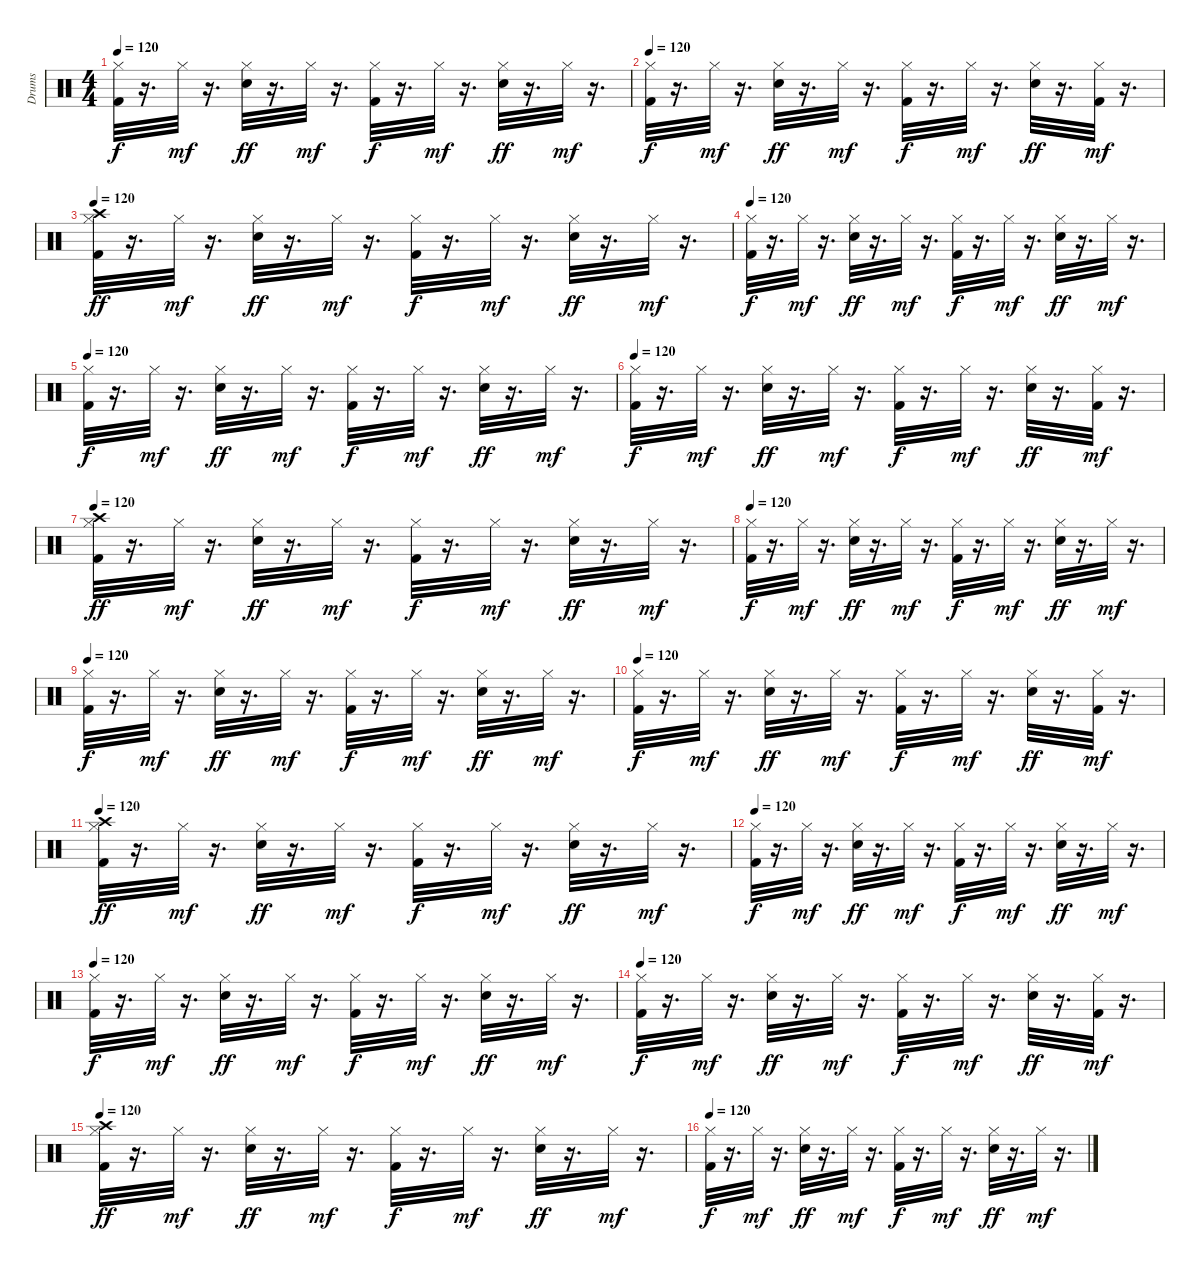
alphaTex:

\track ("Drums" "Drums") {instrument percussion}
\staff {score}
\articulation defaults
\ts (4 4)
\tempo 120
\clef neutral
\ks c
("Kick (hit) 2" "Hi-Hat (closed)").32{dy f} r.16{d} "Hi-Hat (closed)".32{dy mf} r.16{d} ("Snare (hit) 2" "Hi-Hat (closed)").32{dy ff} r.16{d} "Hi-Hat (closed)".32{dy mf} r.16{d} ("Kick (hit) 2" "Hi-Hat (closed)").32{dy f} r.16{d} "Hi-Hat (closed)".32{dy mf} r.16{d} ("Snare (hit) 2" "Hi-Hat (closed)").32{dy ff} r.16{d} "Hi-Hat (closed)".32{dy mf} r.16{d} |
\tempo 120
("Kick (hit) 2" "Hi-Hat (closed)").32{dy f} r.16{d} "Hi-Hat (closed)".32{dy mf} r.16{d} ("Snare (hit) 2" "Hi-Hat (closed)").32{dy ff} r.16{d} "Hi-Hat (closed)".32{dy mf} r.16{d} ("Kick (hit) 2" "Hi-Hat (closed)").32{dy f} r.16{d} "Hi-Hat (closed)".32{dy mf} r.16{d} ("Snare (hit) 2" "Hi-Hat (closed)").32{dy ff} r.16{d} ("Kick (hit) 2" "Hi-Hat (closed)").32{dy mf} r.16{d} |
\tempo 120
("Kick (hit) 2" "Hi-Hat (closed)" "Crash high (hit)").32{dy ff} r.16{d} "Hi-Hat (closed)".32{dy mf} r.16{d} ("Snare (hit) 2" "Hi-Hat (closed)").32{dy ff} r.16{d} "Hi-Hat (closed)".32{dy mf} r.16{d} ("Kick (hit) 2" "Hi-Hat (closed)").32{dy f} r.16{d} "Hi-Hat (closed)".32{dy mf} r.16{d} ("Snare (hit) 2" "Hi-Hat (closed)").32{dy ff} r.16{d} "Hi-Hat (closed)".32{dy mf} r.16{d} |
\tempo 120
("Kick (hit) 2" "Hi-Hat (closed)").32{dy f} r.16{d} "Hi-Hat (closed)".32{dy mf} r.16{d} ("Snare (hit) 2" "Hi-Hat (closed)").32{dy ff} r.16{d} "Hi-Hat (closed)".32{dy mf} r.16{d} ("Kick (hit) 2" "Hi-Hat (closed)").32{dy f} r.16{d} "Hi-Hat (closed)".32{dy mf} r.16{d} ("Snare (hit) 2" "Hi-Hat (closed)").32{dy ff} r.16{d} "Hi-Hat (closed)".32{dy mf} r.16{d} |
\tempo 120
("Kick (hit) 2" "Hi-Hat (closed)").32{dy f} r.16{d} "Hi-Hat (closed)".32{dy mf} r.16{d} ("Snare (hit) 2" "Hi-Hat (closed)").32{dy ff} r.16{d} "Hi-Hat (closed)".32{dy mf} r.16{d} ("Kick (hit) 2" "Hi-Hat (closed)").32{dy f} r.16{d} "Hi-Hat (closed)".32{dy mf} r.16{d} ("Snare (hit) 2" "Hi-Hat (closed)").32{dy ff} r.16{d} "Hi-Hat (closed)".32{dy mf} r.16{d} |
\tempo 120
("Kick (hit) 2" "Hi-Hat (closed)").32{dy f} r.16{d} "Hi-Hat (closed)".32{dy mf} r.16{d} ("Snare (hit) 2" "Hi-Hat (closed)").32{dy ff} r.16{d} "Hi-Hat (closed)".32{dy mf} r.16{d} ("Kick (hit) 2" "Hi-Hat (closed)").32{dy f} r.16{d} "Hi-Hat (closed)".32{dy mf} r.16{d} ("Snare (hit) 2" "Hi-Hat (closed)").32{dy ff} r.16{d} ("Kick (hit) 2" "Hi-Hat (closed)").32{dy mf} r.16{d} |
\tempo 120
("Kick (hit) 2" "Hi-Hat (closed)" "Crash high (hit)").32{dy ff} r.16{d} "Hi-Hat (closed)".32{dy mf} r.16{d} ("Snare (hit) 2" "Hi-Hat (closed)").32{dy ff} r.16{d} "Hi-Hat (closed)".32{dy mf} r.16{d} ("Kick (hit) 2" "Hi-Hat (closed)").32{dy f} r.16{d} "Hi-Hat (closed)".32{dy mf} r.16{d} ("Snare (hit) 2" "Hi-Hat (closed)").32{dy ff} r.16{d} "Hi-Hat (closed)".32{dy mf} r.16{d} |
\tempo 120
("Kick (hit) 2" "Hi-Hat (closed)").32{dy f} r.16{d} "Hi-Hat (closed)".32{dy mf} r.16{d} ("Snare (hit) 2" "Hi-Hat (closed)").32{dy ff} r.16{d} "Hi-Hat (closed)".32{dy mf} r.16{d} ("Kick (hit) 2" "Hi-Hat (closed)").32{dy f} r.16{d} "Hi-Hat (closed)".32{dy mf} r.16{d} ("Snare (hit) 2" "Hi-Hat (closed)").32{dy ff} r.16{d} "Hi-Hat (closed)".32{dy mf} r.16{d} |
\tempo 120
("Kick (hit) 2" "Hi-Hat (closed)").32{dy f} r.16{d} "Hi-Hat (closed)".32{dy mf} r.16{d} ("Snare (hit) 2" "Hi-Hat (closed)").32{dy ff} r.16{d} "Hi-Hat (closed)".32{dy mf} r.16{d} ("Kick (hit) 2" "Hi-Hat (closed)").32{dy f} r.16{d} "Hi-Hat (closed)".32{dy mf} r.16{d} ("Snare (hit) 2" "Hi-Hat (closed)").32{dy ff} r.16{d} "Hi-Hat (closed)".32{dy mf} r.16{d} |
\tempo 120
("Kick (hit) 2" "Hi-Hat (closed)").32{dy f} r.16{d} "Hi-Hat (closed)".32{dy mf} r.16{d} ("Snare (hit) 2" "Hi-Hat (closed)").32{dy ff} r.16{d} "Hi-Hat (closed)".32{dy mf} r.16{d} ("Kick (hit) 2" "Hi-Hat (closed)").32{dy f} r.16{d} "Hi-Hat (closed)".32{dy mf} r.16{d} ("Snare (hit) 2" "Hi-Hat (closed)").32{dy ff} r.16{d} ("Kick (hit) 2" "Hi-Hat (closed)").32{dy mf} r.16{d} |
\tempo 120
("Kick (hit) 2" "Hi-Hat (closed)" "Crash high (hit)").32{dy ff} r.16{d} "Hi-Hat (closed)".32{dy mf} r.16{d} ("Snare (hit) 2" "Hi-Hat (closed)").32{dy ff} r.16{d} "Hi-Hat (closed)".32{dy mf} r.16{d} ("Kick (hit) 2" "Hi-Hat (closed)").32{dy f} r.16{d} "Hi-Hat (closed)".32{dy mf} r.16{d} ("Snare (hit) 2" "Hi-Hat (closed)").32{dy ff} r.16{d} "Hi-Hat (closed)".32{dy mf} r.16{d} |
\tempo 120
("Kick (hit) 2" "Hi-Hat (closed)").32{dy f} r.16{d} "Hi-Hat (closed)".32{dy mf} r.16{d} ("Snare (hit) 2" "Hi-Hat (closed)").32{dy ff} r.16{d} "Hi-Hat (closed)".32{dy mf} r.16{d} ("Kick (hit) 2" "Hi-Hat (closed)").32{dy f} r.16{d} "Hi-Hat (closed)".32{dy mf} r.16{d} ("Snare (hit) 2" "Hi-Hat (closed)").32{dy ff} r.16{d} "Hi-Hat (closed)".32{dy mf} r.16{d} |
\tempo 120
("Kick (hit) 2" "Hi-Hat (closed)").32{dy f} r.16{d} "Hi-Hat (closed)".32{dy mf} r.16{d} ("Snare (hit) 2" "Hi-Hat (closed)").32{dy ff} r.16{d} "Hi-Hat (closed)".32{dy mf} r.16{d} ("Kick (hit) 2" "Hi-Hat (closed)").32{dy f} r.16{d} "Hi-Hat (closed)".32{dy mf} r.16{d} ("Snare (hit) 2" "Hi-Hat (closed)").32{dy ff} r.16{d} "Hi-Hat (closed)".32{dy mf} r.16{d} |
\tempo 120
("Kick (hit) 2" "Hi-Hat (closed)").32{dy f} r.16{d} "Hi-Hat (closed)".32{dy mf} r.16{d} ("Snare (hit) 2" "Hi-Hat (closed)").32{dy ff} r.16{d} "Hi-Hat (closed)".32{dy mf} r.16{d} ("Kick (hit) 2" "Hi-Hat (closed)").32{dy f} r.16{d} "Hi-Hat (closed)".32{dy mf} r.16{d} ("Snare (hit) 2" "Hi-Hat (closed)").32{dy ff} r.16{d} ("Kick (hit) 2" "Hi-Hat (closed)").32{dy mf} r.16{d} |
\tempo 120
("Kick (hit) 2" "Hi-Hat (closed)" "Crash high (hit)").32{dy ff} r.16{d} "Hi-Hat (closed)".32{dy mf} r.16{d} ("Snare (hit) 2" "Hi-Hat (closed)").32{dy ff} r.16{d} "Hi-Hat (closed)".32{dy mf} r.16{d} ("Kick (hit) 2" "Hi-Hat (closed)").32{dy f} r.16{d} "Hi-Hat (closed)".32{dy mf} r.16{d} ("Snare (hit) 2" "Hi-Hat (closed)").32{dy ff} r.16{d} "Hi-Hat (closed)".32{dy mf} r.16{d} |
\tempo 120
("Kick (hit) 2" "Hi-Hat (closed)").32{dy f} r.16{d} "Hi-Hat (closed)".32{dy mf} r.16{d} ("Snare (hit) 2" "Hi-Hat (closed)").32{dy ff} r.16{d} "Hi-Hat (closed)".32{dy mf} r.16{d} ("Kick (hit) 2" "Hi-Hat (closed)").32{dy f} r.16{d} "Hi-Hat (closed)".32{dy mf} r.16{d} ("Snare (hit) 2" "Hi-Hat (closed)").32{dy ff} r.16{d} "Hi-Hat (closed)".32{dy mf} r.16{d}
